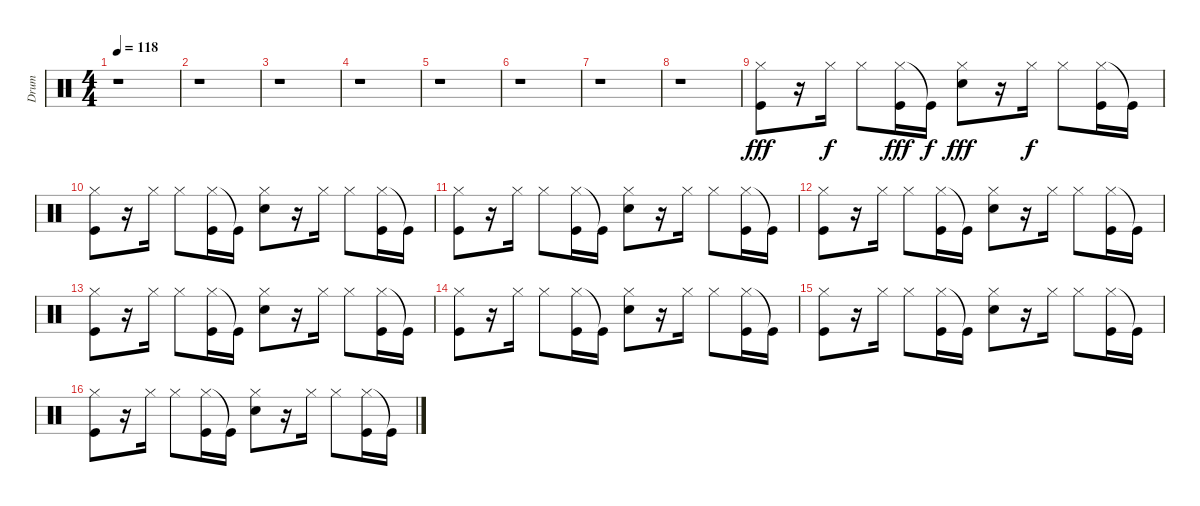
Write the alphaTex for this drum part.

\track ("Drum" "Drum") {instrument percussion}
\staff {score}
\articulation defaults
\ts (4 4)
\tempo 118
\clef neutral
\ks c
r.1{dy fff} |
r.1 |
r.1 |
r.1 |
r.1 |
r.1 |
r.1 |
r.1 |
("Hi-Hat (closed)" "Kick (hit)").8 r.16 "Hi-Hat (closed)".16{dy f} "Hi-Hat (closed)".8 ("Hi-Hat (closed)" "Kick (hit)").16{dy fff} "Kick (hit)"{t}.16{dy f} ("Hi-Hat (closed)" "Hand Clap (hit)").8{dy fff} r.16 "Hi-Hat (closed)".16{dy f} "Hi-Hat (closed)".8 ("Hi-Hat (closed)" "Kick (hit)").16 "Kick (hit)"{t}.16 |
("Hi-Hat (closed)" "Kick (hit)").8 r.16 "Hi-Hat (closed)".16 "Hi-Hat (closed)".8 ("Hi-Hat (closed)" "Kick (hit)").16 "Kick (hit)"{t}.16 ("Hi-Hat (closed)" "Hand Clap (hit)").8 r.16 "Hi-Hat (closed)".16 "Hi-Hat (closed)".8 ("Hi-Hat (closed)" "Kick (hit)").16 "Kick (hit)"{t}.16 |
("Kick (hit)" "Hi-Hat (closed)").8 r.16 "Hi-Hat (closed)".16 "Hi-Hat (closed)".8 ("Hi-Hat (closed)" "Kick (hit)").16 "Kick (hit)"{t}.16 ("Hi-Hat (closed)" "Hand Clap (hit)").8 r.16 "Hi-Hat (closed)".16 "Hi-Hat (closed)".8 ("Hi-Hat (closed)" "Kick (hit)").16 "Kick (hit)"{t}.16 |
("Hi-Hat (closed)" "Kick (hit)").8 r.16 "Hi-Hat (closed)".16 "Hi-Hat (closed)".8 ("Hi-Hat (closed)" "Kick (hit)").16 "Kick (hit)"{t}.16 ("Hi-Hat (closed)" "Hand Clap (hit)").8 r.16 "Hi-Hat (closed)".16 "Hi-Hat (closed)".8 ("Hi-Hat (closed)" "Kick (hit)").16 "Kick (hit)"{t}.16 |
("Kick (hit)" "Hi-Hat (closed)").8 r.16 "Hi-Hat (closed)".16 "Hi-Hat (closed)".8 ("Hi-Hat (closed)" "Kick (hit)").16 "Kick (hit)"{t}.16 ("Hi-Hat (closed)" "Hand Clap (hit)").8 r.16 "Hi-Hat (closed)".16 "Hi-Hat (closed)".8 ("Hi-Hat (closed)" "Kick (hit)").16 "Kick (hit)"{t}.16 |
("Hi-Hat (closed)" "Kick (hit)").8 r.16 "Hi-Hat (closed)".16 "Hi-Hat (closed)".8 ("Hi-Hat (closed)" "Kick (hit)").16 "Kick (hit)"{t}.16 ("Hi-Hat (closed)" "Hand Clap (hit)").8 r.16 "Hi-Hat (closed)".16 "Hi-Hat (closed)".8 ("Hi-Hat (closed)" "Kick (hit)").16 "Kick (hit)"{t}.16 |
("Kick (hit)" "Hi-Hat (closed)").8 r.16 "Hi-Hat (closed)".16 "Hi-Hat (closed)".8 ("Hi-Hat (closed)" "Kick (hit)").16 "Kick (hit)"{t}.16 ("Hi-Hat (closed)" "Hand Clap (hit)").8 r.16 "Hi-Hat (closed)".16 "Hi-Hat (closed)".8 ("Hi-Hat (closed)" "Kick (hit)").16 "Kick (hit)"{t}.16 |
("Kick (hit)" "Hi-Hat (closed)").8 r.16 "Hi-Hat (closed)".16 "Hi-Hat (closed)".8 ("Hi-Hat (closed)" "Kick (hit)").16 "Kick (hit)"{t}.16 ("Hi-Hat (closed)" "Hand Clap (hit)").8 r.16 "Hi-Hat (closed)".16 "Hi-Hat (closed)".8 ("Hi-Hat (closed)" "Kick (hit)").16 "Kick (hit)"{t}.16
